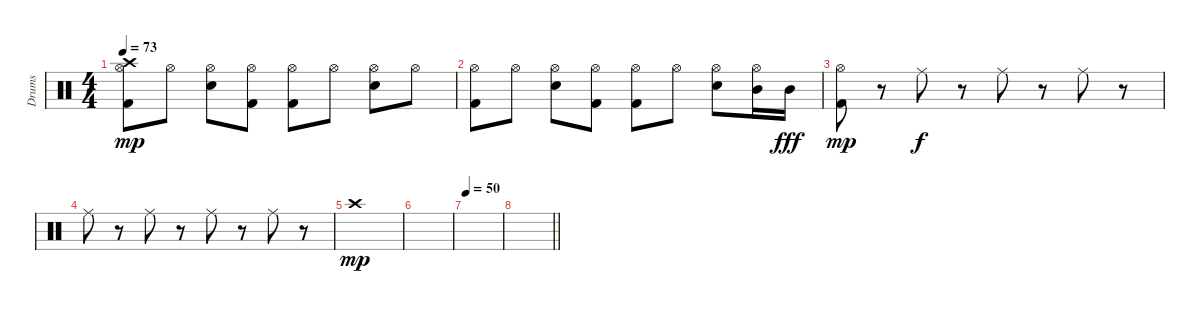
\track ("Drums" "Drums") {instrument percussion}
\staff {score}
\articulation defaults
\ts (4 4)
\tempo 73
\clef neutral
\ks c
("Kick (hit) 2" "Crash high (hit)" "Hi-Hat (open)").8{dy mp} "Hi-Hat (open)".8 ("Electric Snare (hit)" "Hi-Hat (open)").8 ("Kick (hit) 2" "Hi-Hat (open)").8 ("Kick (hit) 2" "Hi-Hat (open)").8 "Hi-Hat (open)".8 ("Electric Snare (hit)" "Hi-Hat (open)").8 "Hi-Hat (open)".8 |
("Kick (hit) 2" "Hi-Hat (open)").8 "Hi-Hat (open)".8 ("Electric Snare (hit)" "Hi-Hat (open)").8 ("Kick (hit) 2" "Hi-Hat (open)").8 ("Kick (hit) 2" "Hi-Hat (open)").8 "Hi-Hat (open)".8 ("Electric Snare (hit)" "Hi-Hat (open)").8 ("Mid Tom (hit)" "Hi-Hat (open)").16 "Mid Tom (hit)".16{dy fff} |
("Kick (hit) 2" "Hi-Hat (open)").8{dy mp} r.8 "Ride (middle)".8{dy f} r.8 "Ride (middle)".8 r.8 "Ride (middle)".8 r.8 |
"Ride (middle)".8 r.8 "Ride (middle)".8 r.8 "Ride (middle)".8 r.8 "Ride (middle)".8 r.8 |
"Crash high (hit)".1{dy mp} |
|
\tempo 50
|
\barLineRight lightlight
